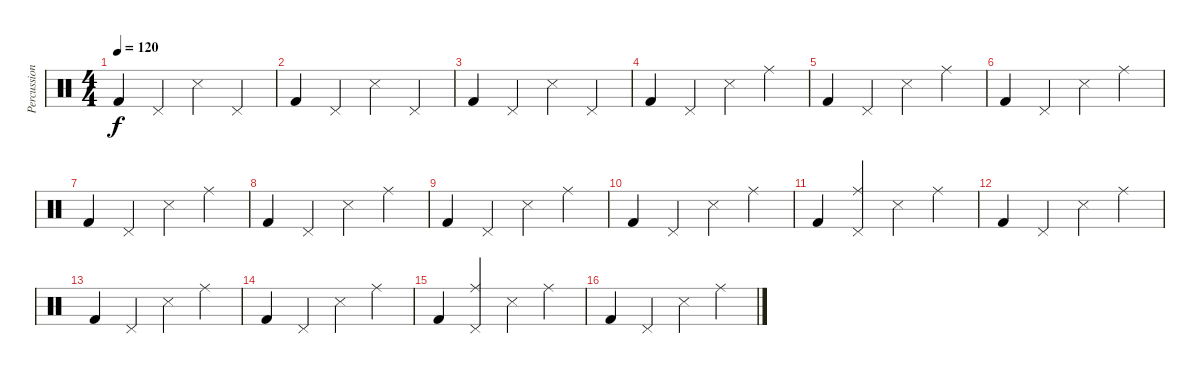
\track ("Percussion" "Percussion") {instrument percussion}
\staff {score}
\articulation defaults
\ts (4 4)
\tempo 120
\clef neutral
\ks c "Kick (hit) 2".4{dy f} "Pedal Hi-Hat (hit)".4 "Snare (side stick) 3".4 "Pedal Hi-Hat (hit)".4
|
"Kick (hit) 2".4 "Pedal Hi-Hat (hit)".4 "Snare (side stick) 3".4 "Pedal Hi-Hat (hit)".4 |
"Kick (hit) 2".4 "Pedal Hi-Hat (hit)".4 "Snare (side stick) 3".4 "Pedal Hi-Hat (hit)".4 |
"Kick (hit) 2".4 "Pedal Hi-Hat (hit)".4 "Snare (side stick) 3".4 "Ride (middle)".4 |
"Kick (hit) 2".4 "Pedal Hi-Hat (hit)".4 "Snare (side stick) 3".4 "Ride (middle)".4 |
"Kick (hit) 2".4 "Pedal Hi-Hat (hit)".4 "Snare (side stick) 3".4 "Ride (middle)".4 |
"Kick (hit) 2".4 "Pedal Hi-Hat (hit)".4 "Snare (side stick) 3".4 "Ride (middle)".4 |
"Kick (hit) 2".4 "Pedal Hi-Hat (hit)".4 "Snare (side stick) 3".4 "Ride (middle)".4 |
"Kick (hit) 2".4 "Pedal Hi-Hat (hit)".4 "Snare (side stick) 3".4 "Ride (middle)".4 |
"Kick (hit) 2".4 "Pedal Hi-Hat (hit)".4 "Snare (side stick) 3".4 "Ride (middle)".4 |
"Kick (hit) 2".4 ("Ride (middle)" "Pedal Hi-Hat (hit)").4 "Snare (side stick) 3".4 "Ride (middle)".4 |
"Kick (hit) 2".4 "Pedal Hi-Hat (hit)".4 "Snare (side stick) 3".4 "Ride (middle)".4 |
"Kick (hit) 2".4 "Pedal Hi-Hat (hit)".4 "Snare (side stick) 3".4 "Ride (middle)".4 |
"Kick (hit) 2".4 "Pedal Hi-Hat (hit)".4 "Snare (side stick) 3".4 "Ride (middle)".4 |
"Kick (hit) 2".4 ("Ride (middle)" "Pedal Hi-Hat (hit)").4 "Snare (side stick) 3".4 "Ride (middle)".4 |
"Kick (hit) 2".4 "Pedal Hi-Hat (hit)".4 "Snare (side stick) 3".4 "Ride (middle)".4
